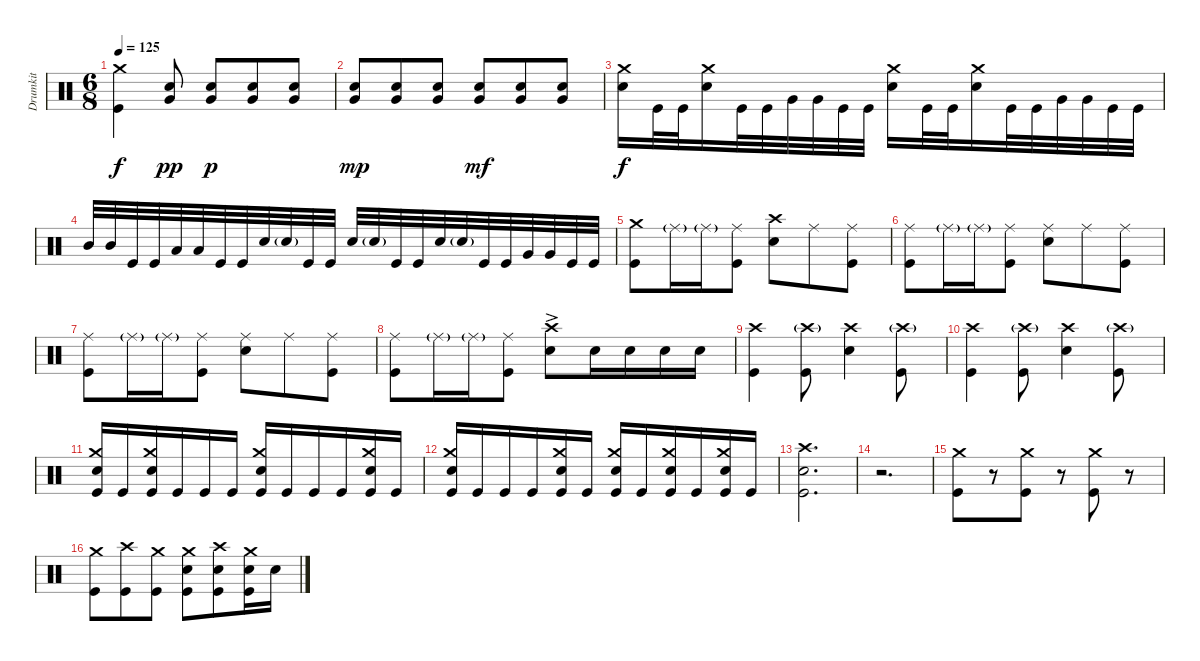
\track ("Drumkit" "Drumkit") {instrument percussion}
\staff {score}
\articulation defaults
\ts (6 8)
\tempo 125
\clef neutral
\ks c
("Kick (hit)" "Crash medium (hit)").4{dy f} ("Very Low Tom (hit)" "Snare (hit) 2").8{dy pp} ("Very Low Tom (hit)" "Snare (hit) 2").8{dy p} ("Very Low Tom (hit)" "Snare (hit) 2").8 ("Very Low Tom (hit)" "Snare (hit) 2").8 |
("Snare (hit) 2" "Very Low Tom (hit)").8{dy mp} ("Snare (hit) 2" "Very Low Tom (hit)").8 ("Snare (hit) 2" "Very Low Tom (hit)").8 ("Snare (hit) 2" "Very Low Tom (hit)").8{dy mf} ("Snare (hit) 2" "Very Low Tom (hit)").8 ("Snare (hit) 2" "Very Low Tom (hit)").8 |
("Snare (hit) 2" "Crash medium (hit)").16{dy f} "Kick (hit)".32 "Kick (hit)".32 ("Snare (hit) 2" "Crash medium (hit)").16 "Kick (hit)".32 "Kick (hit)".32 "Very Low Tom (hit)".32 "Very Low Tom (hit)".32 "Kick (hit)".32 "Kick (hit)".32 ("Snare (hit) 2" "Crash medium (hit)").16 "Kick (hit)".32 "Kick (hit)".32 ("Snare (hit) 2" "Crash medium (hit)").16 "Kick (hit)".32 "Kick (hit)".32 "Very Low Tom (hit)".32 "Very Low Tom (hit)".32 "Kick (hit)".32 "Kick (hit)".32 |
"Mid Tom (hit)".32 "Mid Tom (hit)".32 "Kick (hit)".32 "Kick (hit)".32 "Low Tom (hit)".32 "Low Tom (hit)".32 "Kick (hit)".32 "Kick (hit)".32 "Snare (hit) 2".32 "Snare (hit) 2"{g}.32 "Kick (hit)".32 "Kick (hit)".32 "Snare (hit) 2".32 "Snare (hit) 2"{g}.32 "Kick (hit)".32 "Kick (hit)".32 "Snare (hit) 2".32 "Snare (hit) 2"{g}.32 "Kick (hit)".32 "Kick (hit)".32 "Very Low Tom (hit)".32 "Very Low Tom (hit)".32 "Kick (hit)".32 "Kick (hit)".32 |
("Kick (hit)" "Crash medium (hit)").8 "Ride (middle)"{g}.16 "Ride (middle)"{g}.16 ("Kick (hit)" "Ride (middle)").8 ("Snare (hit) 2" "Crash high (hit)").8 "Ride (middle)".8 ("Kick (hit)" "Ride (middle)").8 |
("Kick (hit)" "Ride (middle)").8 "Ride (middle)"{g}.16 "Ride (middle)"{g}.16 ("Kick (hit)" "Ride (middle)").8 ("Snare (hit) 2" "Ride (middle)").8 "Ride (middle)".8 ("Kick (hit)" "Ride (middle)").8 |
("Kick (hit)" "Ride (middle)").8 "Ride (middle)"{g}.16 "Ride (middle)"{g}.16 ("Kick (hit)" "Ride (middle)").8 ("Snare (hit) 2" "Ride (middle)").8 "Ride (middle)".8 ("Kick (hit)" "Ride (middle)").8 |
("Kick (hit)" "Ride (middle)").8 "Ride (middle)"{g}.16 "Ride (middle)"{g}.16 ("Kick (hit)" "Ride (middle)").8 ("Snare (hit) 2" "Crash high (hit)"{ac}).8 "Snare (hit) 2".16 "Snare (hit) 2".16 "Snare (hit) 2".16 "Snare (hit) 2".16 |
("Kick (hit)" "Crash high (hit)").4 ("Kick (hit)" "Crash high (hit)"{g}).8 ("Snare (hit) 2" "Crash high (hit)").4 ("Kick (hit)" "Crash high (hit)"{g}).8 |
("Kick (hit)" "Crash high (hit)").4 ("Kick (hit)" "Crash high (hit)"{g}).8 ("Snare (hit) 2" "Crash high (hit)").4 ("Kick (hit)" "Crash high (hit)"{g}).8 |
("Kick (hit)" "Snare (hit) 2" "Crash medium (hit)").16 "Kick (hit)".16 ("Kick (hit)" "Snare (hit) 2" "Crash medium (hit)").16 "Kick (hit)".16 "Kick (hit)".16 "Kick (hit)".16 ("Kick (hit)" "Snare (hit) 2" "Crash medium (hit)").16 "Kick (hit)".16 "Kick (hit)".16 "Kick (hit)".16 ("Kick (hit)" "Snare (hit) 2" "Crash medium (hit)").16 "Kick (hit)".16 |
("Kick (hit)" "Snare (hit) 2" "Crash medium (hit)").16 "Kick (hit)".16 "Kick (hit)".16 "Kick (hit)".16 ("Kick (hit)" "Snare (hit) 2" "Crash medium (hit)").16 "Kick (hit)".16 ("Kick (hit)" "Snare (hit) 2" "Crash medium (hit)").16 "Kick (hit)".16 ("Kick (hit)" "Snare (hit) 2" "Crash medium (hit)").16 "Kick (hit)".16 ("Kick (hit)" "Snare (hit) 2" "Crash medium (hit)").16 "Kick (hit)".16 |
("Kick (hit)" "Snare (hit) 2" "Crash high (hit)").2{d} |
r.2{d} |
("Kick (hit)" "Crash medium (hit)").8 r.8 ("Kick (hit)" "Crash medium (hit)").8 r.8 ("Kick (hit)" "Crash medium (hit)").8 r.8 |
("Kick (hit)" "Crash medium (hit)").8 ("Kick (hit)" "Crash high (hit)").8 ("Kick (hit)" "Crash medium (hit)").8 ("Kick (hit)" "Crash medium (hit)" "Snare (hit) 2").8 ("Kick (hit)" "Crash high (hit)" "Snare (hit) 2").8 ("Kick (hit)" "Crash medium (hit)" "Snare (hit) 2").16 "Snare (hit) 2".16
